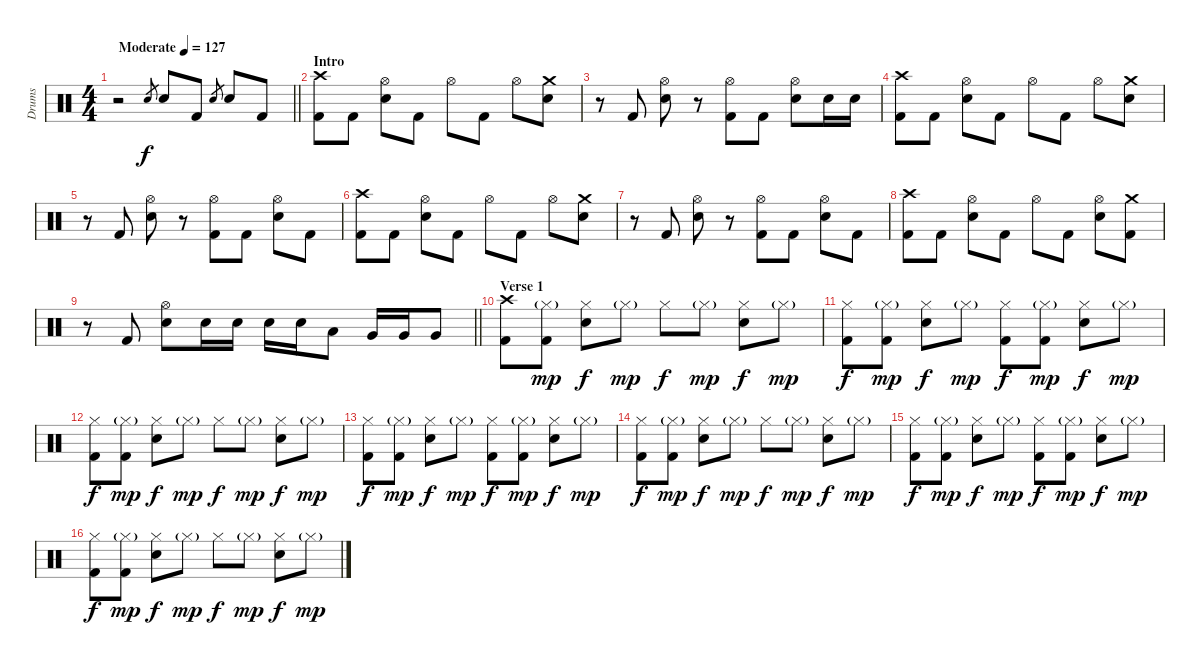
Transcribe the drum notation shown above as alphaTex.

\track ("Drums" "Drums") {instrument percussion}
\staff {score}
\articulation defaults
\ts (4 4)
\tempo (127 "Moderate")
\clef neutral
\barLineRight lightlight
\ks c
r.2{dy f} "Electric Snare (hit)".8{gr} "Electric Snare (hit)".8 "Kick (hit) 2".8 "Electric Snare (hit)".8{gr} "Electric Snare (hit)".8 "Kick (hit) 2".8 |
\section ("" "Intro")
("Crash high (hit)" "Kick (hit) 2").8 "Kick (hit) 2".8 ("Hi-Hat (open)" "Electric Snare (hit)").8 "Kick (hit) 2".8 "Hi-Hat (open)".8 "Kick (hit) 2".8 "Hi-Hat (open)".8 ("Crash medium (hit)" "Electric Snare (hit)").8 |
r.8 "Kick (hit) 2".8 ("Hi-Hat (open)" "Electric Snare (hit)").8 r.8 ("Hi-Hat (open)" "Kick (hit) 2").8 "Kick (hit) 2".8 ("Hi-Hat (open)" "Electric Snare (hit)").8 "Electric Snare (hit)".16 "Electric Snare (hit)".16 |
("Crash high (hit)" "Kick (hit) 2").8 "Kick (hit) 2".8 ("Hi-Hat (open)" "Electric Snare (hit)").8 "Kick (hit) 2".8 "Hi-Hat (open)".8 "Kick (hit) 2".8 "Hi-Hat (open)".8 ("Crash medium (hit)" "Electric Snare (hit)").8 |
r.8 "Kick (hit) 2".8 ("Hi-Hat (open)" "Electric Snare (hit)").8 r.8 ("Hi-Hat (open)" "Kick (hit) 2").8 "Kick (hit) 2".8 ("Hi-Hat (open)" "Electric Snare (hit)").8 "Kick (hit) 2".8 |
("Crash high (hit)" "Kick (hit) 2").8 "Kick (hit) 2".8 ("Hi-Hat (open)" "Electric Snare (hit)").8 "Kick (hit) 2".8 "Hi-Hat (open)".8 "Kick (hit) 2".8 "Hi-Hat (open)".8 ("Crash medium (hit)" "Electric Snare (hit)").8 |
r.8 "Kick (hit) 2".8 ("Hi-Hat (open)" "Electric Snare (hit)").8 r.8 ("Hi-Hat (open)" "Kick (hit) 2").8 "Kick (hit) 2".8 ("Hi-Hat (open)" "Electric Snare (hit)").8 "Kick (hit) 2".8 |
("Crash high (hit)" "Kick (hit) 2").8 "Kick (hit) 2".8 ("Hi-Hat (open)" "Electric Snare (hit)").8 "Kick (hit) 2".8 "Hi-Hat (open)".8 "Kick (hit) 2".8 ("Hi-Hat (open)" "Electric Snare (hit)").8 ("Crash medium (hit)" "Kick (hit) 2").8 |
\barLineRight lightlight
r.8 "Kick (hit) 2".8 ("Hi-Hat (open)" "Electric Snare (hit)").8 "Electric Snare (hit)".16 "Electric Snare (hit)".16 "Electric Snare (hit)".16 "Electric Snare (hit)".16 "Low Tom (hit)".8 "Very Low Tom (hit)".16 "Very Low Tom (hit)".16 "Very Low Tom (hit)".8 |
\section ("" "Verse 1")
("Crash high (hit)" "Kick (hit) 2").8 ("Hi-Hat (closed)"{g} "Kick (hit) 2").8{dy mp} ("Hi-Hat (closed)" "Electric Snare (hit)").8{dy f} "Hi-Hat (closed)"{g}.8{dy mp} "Hi-Hat (closed)".8{dy f} "Hi-Hat (closed)"{g}.8{dy mp} ("Hi-Hat (closed)" "Electric Snare (hit)").8{dy f} "Hi-Hat (closed)"{g}.8{dy mp} |
("Hi-Hat (closed)" "Kick (hit) 2").8{dy f} ("Hi-Hat (closed)"{g} "Kick (hit) 2").8{dy mp} ("Hi-Hat (closed)" "Electric Snare (hit)").8{dy f} "Hi-Hat (closed)"{g}.8{dy mp} ("Hi-Hat (closed)" "Kick (hit) 2").8{dy f} ("Hi-Hat (closed)"{g} "Kick (hit) 2").8{dy mp} ("Hi-Hat (closed)" "Electric Snare (hit)").8{dy f} "Hi-Hat (closed)"{g}.8{dy mp} |
("Hi-Hat (closed)" "Kick (hit) 2").8{dy f} ("Hi-Hat (closed)"{g} "Kick (hit) 2").8{dy mp} ("Hi-Hat (closed)" "Electric Snare (hit)").8{dy f} "Hi-Hat (closed)"{g}.8{dy mp} "Hi-Hat (closed)".8{dy f} "Hi-Hat (closed)"{g}.8{dy mp} ("Hi-Hat (closed)" "Electric Snare (hit)").8{dy f} "Hi-Hat (closed)"{g}.8{dy mp} |
("Hi-Hat (closed)" "Kick (hit) 2").8{dy f} ("Hi-Hat (closed)"{g} "Kick (hit) 2").8{dy mp} ("Hi-Hat (closed)" "Electric Snare (hit)").8{dy f} "Hi-Hat (closed)"{g}.8{dy mp} ("Hi-Hat (closed)" "Kick (hit) 2").8{dy f} ("Hi-Hat (closed)"{g} "Kick (hit) 2").8{dy mp} ("Hi-Hat (closed)" "Electric Snare (hit)").8{dy f} "Hi-Hat (closed)"{g}.8{dy mp} |
("Hi-Hat (closed)" "Kick (hit) 2").8{dy f} ("Hi-Hat (closed)"{g} "Kick (hit) 2").8{dy mp} ("Hi-Hat (closed)" "Electric Snare (hit)").8{dy f} "Hi-Hat (closed)"{g}.8{dy mp} "Hi-Hat (closed)".8{dy f} "Hi-Hat (closed)"{g}.8{dy mp} ("Hi-Hat (closed)" "Electric Snare (hit)").8{dy f} "Hi-Hat (closed)"{g}.8{dy mp} |
("Hi-Hat (closed)" "Kick (hit) 2").8{dy f} ("Hi-Hat (closed)"{g} "Kick (hit) 2").8{dy mp} ("Hi-Hat (closed)" "Electric Snare (hit)").8{dy f} "Hi-Hat (closed)"{g}.8{dy mp} ("Hi-Hat (closed)" "Kick (hit) 2").8{dy f} ("Hi-Hat (closed)"{g} "Kick (hit) 2").8{dy mp} ("Hi-Hat (closed)" "Electric Snare (hit)").8{dy f} "Hi-Hat (closed)"{g}.8{dy mp} |
("Hi-Hat (closed)" "Kick (hit) 2").8{dy f} ("Hi-Hat (closed)"{g} "Kick (hit) 2").8{dy mp} ("Hi-Hat (closed)" "Electric Snare (hit)").8{dy f} "Hi-Hat (closed)"{g}.8{dy mp} "Hi-Hat (closed)".8{dy f} "Hi-Hat (closed)"{g}.8{dy mp} ("Hi-Hat (closed)" "Electric Snare (hit)").8{dy f} "Hi-Hat (closed)"{g}.8{dy mp}
